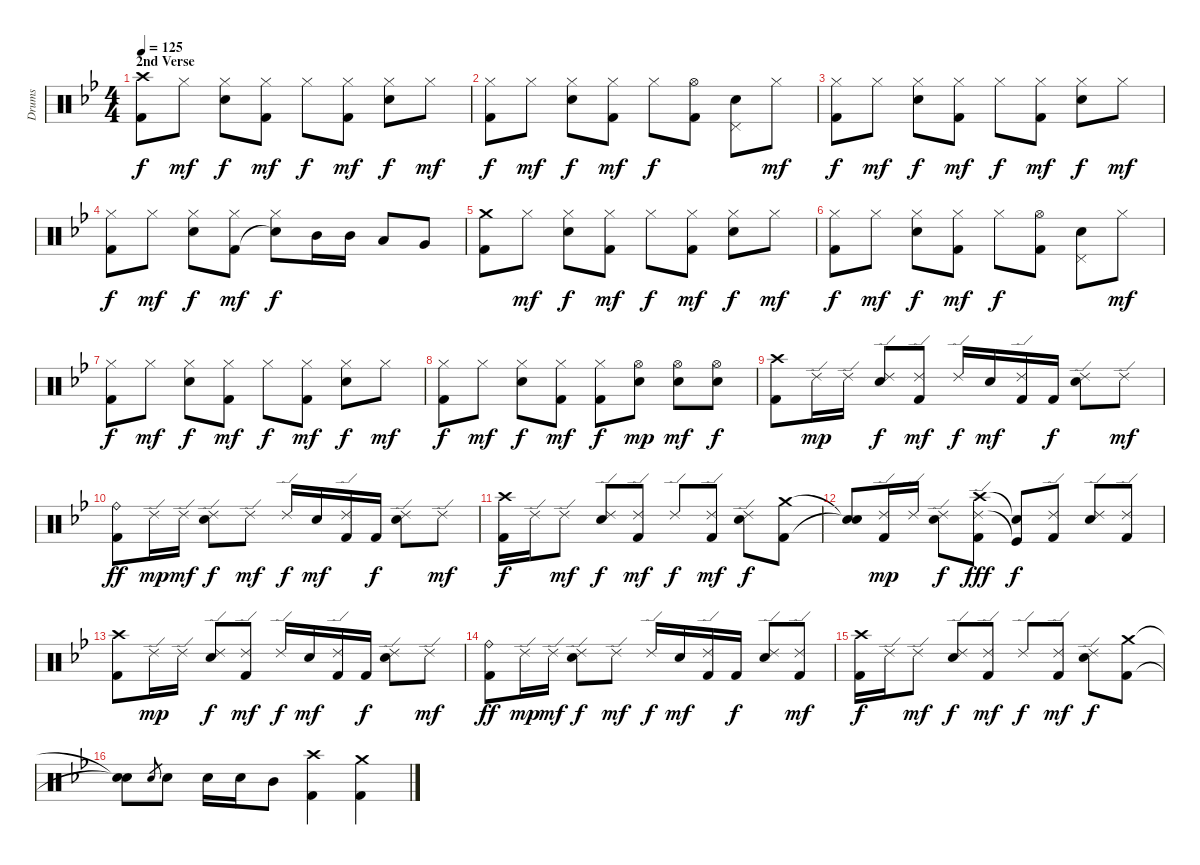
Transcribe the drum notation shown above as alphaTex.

\track ("Drums" "Drums") {instrument percussion}
\staff {score}
\articulation defaults
\ts (4 4)
\section ("" "2nd Verse")
\tempo 125
\clef neutral
\ks gminor
("Crash high (hit)" "Kick (hit) 2").8{dy f} "Hi-Hat (closed)".8{dy mf} ("Hi-Hat (closed)" "Snare (hit) 2").8{dy f} ("Hi-Hat (closed)" "Kick (hit) 2").8{dy mf} "Hi-Hat (closed)".8{dy f} ("Hi-Hat (closed)" "Kick (hit) 2").8{dy mf} ("Hi-Hat (closed)" "Snare (hit) 2").8{dy f} "Hi-Hat (closed)".8{dy mf} |
("Hi-Hat (closed)" "Kick (hit) 2").8{dy f} "Hi-Hat (closed)".8{dy mf} ("Hi-Hat (closed)" "Snare (hit) 2").8{dy f} ("Hi-Hat (closed)" "Kick (hit) 2").8{dy mf} "Hi-Hat (closed)".8{dy f} ("Hi-Hat (open)" "Kick (hit) 2").8 ("Pedal Hi-Hat (hit)" "Snare (hit) 2").8 "Hi-Hat (closed)".8{dy mf} |
("Hi-Hat (closed)" "Kick (hit) 2").8{dy f} "Hi-Hat (closed)".8{dy mf} ("Hi-Hat (closed)" "Snare (hit) 2").8{dy f} ("Hi-Hat (closed)" "Kick (hit) 2").8{dy mf} "Hi-Hat (closed)".8{dy f} ("Hi-Hat (closed)" "Kick (hit) 2").8{dy mf} ("Hi-Hat (closed)" "Snare (hit) 2").8{dy f} "Hi-Hat (closed)".8{dy mf} |
("Hi-Hat (closed)" "Kick (hit) 2").8{dy f} "Hi-Hat (closed)".8{dy mf} ("Hi-Hat (closed)" "Snare (hit) 2").8{dy f} ("Hi-Hat (closed)" "Kick (hit) 2").8{dy mf} ("Hi-Hat (closed)" "Snare (hit)"{t}).8{dy f} "Mid Tom (hit)".16 "Mid Tom (hit)".16 "Low Tom (hit)".8 "Very Low Tom (hit)".8 |
("Crash medium (hit)" "Kick (hit) 2").8 "Hi-Hat (closed)".8{dy mf} ("Hi-Hat (closed)" "Snare (hit) 2").8{dy f} ("Hi-Hat (closed)" "Kick (hit) 2").8{dy mf} "Hi-Hat (closed)".8{dy f} ("Hi-Hat (closed)" "Kick (hit) 2").8{dy mf} ("Hi-Hat (closed)" "Snare (hit) 2").8{dy f} "Hi-Hat (closed)".8{dy mf} |
("Hi-Hat (closed)" "Kick (hit) 2").8{dy f} "Hi-Hat (closed)".8{dy mf} ("Hi-Hat (closed)" "Snare (hit) 2").8{dy f} ("Hi-Hat (closed)" "Kick (hit) 2").8{dy mf} "Hi-Hat (closed)".8{dy f} ("Hi-Hat (open)" "Kick (hit) 2").8 ("Pedal Hi-Hat (hit)" "Snare (hit) 2").8 "Hi-Hat (closed)".8{dy mf} |
("Hi-Hat (closed)" "Kick (hit) 2").8{dy f} "Hi-Hat (closed)".8{dy mf} ("Hi-Hat (closed)" "Snare (hit) 2").8{dy f} ("Hi-Hat (closed)" "Kick (hit) 2").8{dy mf} "Hi-Hat (closed)".8{dy f} ("Hi-Hat (closed)" "Kick (hit) 2").8{dy mf} ("Hi-Hat (closed)" "Snare (hit) 2").8{dy f} "Hi-Hat (closed)".8{dy mf} |
("Hi-Hat (closed)" "Kick (hit) 2").8{dy f} "Hi-Hat (closed)".8{dy mf} ("Hi-Hat (closed)" "Snare (hit) 2").8{dy f} ("Hi-Hat (closed)" "Kick (hit) 2").8{dy mf} ("Hi-Hat (closed)" "Kick (hit) 2").8{dy f} ("Hi-Hat (open)" "Snare (hit) 2").8{dy mp} ("Hi-Hat (open)" "Snare (hit) 2").8{dy mf} ("Hi-Hat (open)" "Snare (hit) 2").8{dy f} |
("Crash high (hit)" "Kick (hit) 2").8 "Ride (edge) 2".16{dy mp} "Ride (edge) 2".16 ("Ride (edge) 2" "Snare (hit) 2").8{dy f} ("Ride (edge) 2" "Kick (hit) 2").8{dy mf} "Ride (edge) 2".16{dy f} "Snare (hit) 2".16{dy mf} ("Ride (edge) 2" "Kick (hit) 2").16 "Kick (hit) 2".16{dy f} ("Ride (edge) 2" "Snare (hit) 2").8 "Ride (edge) 2".8{dy mf} |
("Ride (bell)" "Kick (hit) 2").8{dy ff} "Ride (edge) 2".16{dy mp} "Ride (edge) 2".16{dy mf} ("Ride (edge) 2" "Snare (hit) 2").8{dy f} "Ride (edge) 2".8{dy mf} "Ride (edge) 2".16{dy f} "Snare (hit) 2".16{dy mf} ("Ride (edge) 2" "Kick (hit) 2").16 "Kick (hit) 2".16{dy f} ("Ride (edge) 2" "Snare (hit) 2").8 "Ride (edge) 2".8{dy mf} |
("Crash high (hit)" "Kick (hit) 2").16{dy f} "Ride (edge) 2".16 "Ride (edge) 2".8{dy mf} ("Ride (edge) 2" "Snare (hit) 2").8{dy f} ("Ride (edge) 2" "Kick (hit) 2").8{dy mf} "Ride (edge) 2".8{dy f} ("Ride (edge) 2" "Kick (hit) 2").8{dy mf} ("Ride (edge) 2" "Snare (hit) 2").8{dy f} ("Crash medium (hit)" "Kick (hit) 2").8 |
("Snare (hit)"{t} "Snare (hit)"{t}).8 ("Ride (edge) 2" "Kick (hit) 2").16{dy mp} "Ride (edge) 2".16 ("Ride (edge) 2" "Snare (hit) 2").8{dy f} ("Crash high (hit)" "Ride (edge) 2" "Kick (hit) 2").8{dy fff} ("Snare (hit)"{t} "Kick (hit)"{t}).8{dy f} ("Ride (edge) 2" "Kick (hit) 2").8 ("Ride (edge) 2" "Snare (hit) 2").8 ("Ride (edge) 2" "Kick (hit) 2").8 |
("Crash high (hit)" "Kick (hit) 2").8 "Ride (edge) 2".16{dy mp} "Ride (edge) 2".16 ("Ride (edge) 2" "Snare (hit) 2").8{dy f} ("Ride (edge) 2" "Kick (hit) 2").8{dy mf} "Ride (edge) 2".16{dy f} "Snare (hit) 2".16{dy mf} ("Ride (edge) 2" "Kick (hit) 2").16 "Kick (hit) 2".16{dy f} ("Ride (edge) 2" "Snare (hit) 2").8 "Ride (edge) 2".8{dy mf} |
("Ride (bell)" "Kick (hit) 2").8{dy ff} "Ride (edge) 2".16{dy mp} "Ride (edge) 2".16{dy mf} ("Ride (edge) 2" "Snare (hit) 2").8{dy f} "Ride (edge) 2".8{dy mf} "Ride (edge) 2".16{dy f} "Snare (hit) 2".16{dy mf} ("Ride (edge) 2" "Kick (hit) 2").16 "Kick (hit) 2".16{dy f} ("Ride (edge) 2" "Snare (hit) 2").8 ("Ride (edge) 2" "Kick (hit) 2").8{dy mf} |
("Crash high (hit)" "Kick (hit) 2").16{dy f} "Ride (edge) 2".16 "Ride (edge) 2".8{dy mf} ("Ride (edge) 2" "Snare (hit) 2").8{dy f} ("Ride (edge) 2" "Kick (hit) 2").8{dy mf} "Ride (edge) 2".8{dy f} ("Ride (edge) 2" "Kick (hit) 2").8{dy mf} ("Ride (edge) 2" "Snare (hit) 2").8{dy f} ("Crash medium (hit)" "Kick (hit) 2").8 |
("Snare (hit)"{t} "Snare (hit)"{t}).8 "Snare (hit) 2".8{gr} "Snare (hit) 2".8 "Snare (hit) 2".16 "Snare (hit) 2".16 "Mid Tom (hit)".8 ("Crash high (hit)" "Kick (hit) 2").4 ("Crash medium (hit)" "Kick (hit) 2").4
